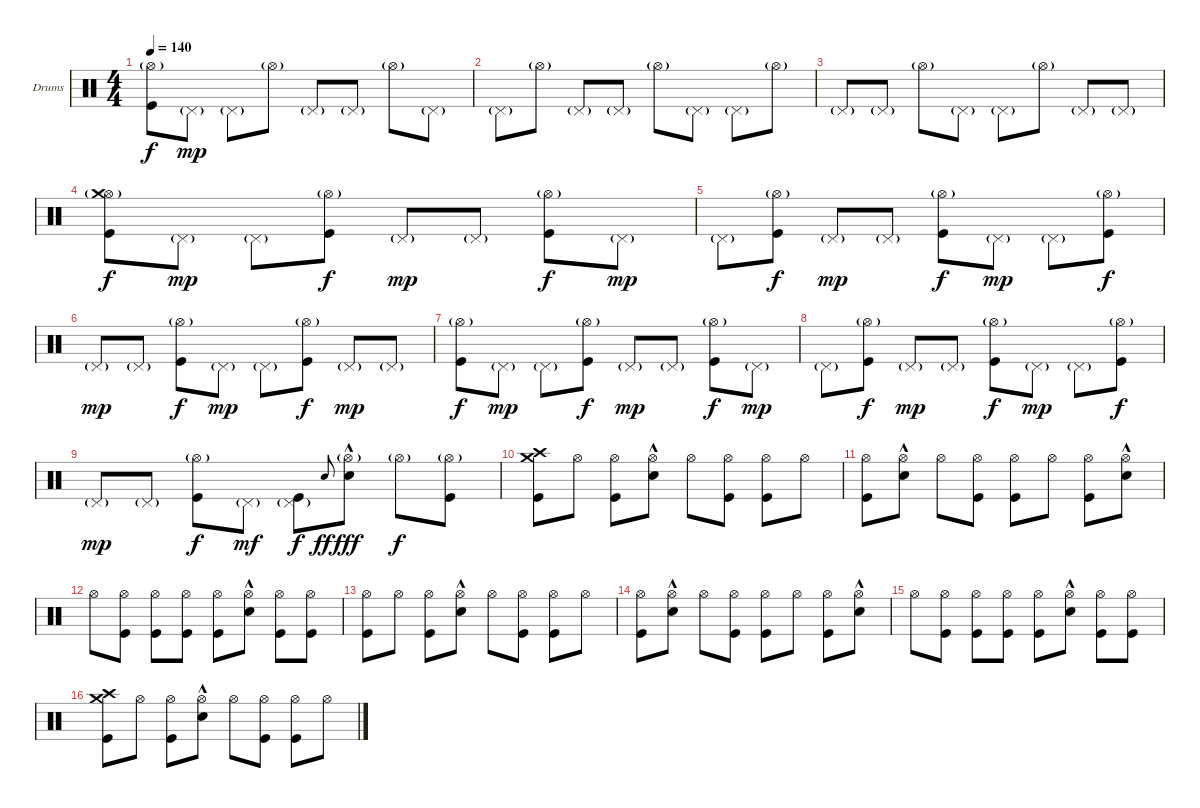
\bracketExtendMode groupsimilarinstruments
\firstSystemTrackNameOrientation horizontal
\otherSystemsTrackNameOrientation horizontal
\track ("Drumkit (Christoph)" "Drums") {instrument percussion}
\staff {score}
\articulation defaults
\ts (4 4)
\tempo 140
\clef neutral
\ks c
("Hi-Hat (open)"{g} "Kick (hit)").8{dy f} "Pedal Hi-Hat (hit)"{g}.8{dy mp} "Pedal Hi-Hat (hit)"{g}.8 "Hi-Hat (open)"{g}.8 "Pedal Hi-Hat (hit)"{g}.8 "Pedal Hi-Hat (hit)"{g}.8 "Hi-Hat (open)"{g}.8 "Pedal Hi-Hat (hit)"{g}.8 |
"Pedal Hi-Hat (hit)"{g}.8 "Hi-Hat (open)"{g}.8 "Pedal Hi-Hat (hit)"{g}.8 "Pedal Hi-Hat (hit)"{g}.8 "Hi-Hat (open)"{g}.8 "Pedal Hi-Hat (hit)"{g}.8 "Pedal Hi-Hat (hit)"{g}.8 "Hi-Hat (open)"{g}.8 |
"Pedal Hi-Hat (hit)"{g}.8 "Pedal Hi-Hat (hit)"{g}.8 "Hi-Hat (open)"{g}.8 "Pedal Hi-Hat (hit)"{g}.8 "Pedal Hi-Hat (hit)"{g}.8 "Hi-Hat (open)"{g}.8 "Pedal Hi-Hat (hit)"{g}.8 "Pedal Hi-Hat (hit)"{g}.8 |
("Hi-Hat (open)"{g} "Kick (hit)" "Crash medium (hit)").8{dy f} "Pedal Hi-Hat (hit)"{g}.8{dy mp} "Pedal Hi-Hat (hit)"{g}.8 ("Hi-Hat (open)"{g} "Kick (hit)").8{dy f} "Pedal Hi-Hat (hit)"{g}.8{dy mp} "Pedal Hi-Hat (hit)"{g}.8 ("Hi-Hat (open)"{g} "Kick (hit)").8{dy f} "Pedal Hi-Hat (hit)"{g}.8{dy mp} |
"Pedal Hi-Hat (hit)"{g}.8 ("Hi-Hat (open)"{g} "Kick (hit)").8{dy f} "Pedal Hi-Hat (hit)"{g}.8{dy mp} "Pedal Hi-Hat (hit)"{g}.8 ("Hi-Hat (open)"{g} "Kick (hit)").8{dy f} "Pedal Hi-Hat (hit)"{g}.8{dy mp} "Pedal Hi-Hat (hit)"{g}.8 ("Hi-Hat (open)"{g} "Kick (hit)").8{dy f} |
"Pedal Hi-Hat (hit)"{g}.8{dy mp} "Pedal Hi-Hat (hit)"{g}.8 ("Hi-Hat (open)"{g} "Kick (hit)").8{dy f} "Pedal Hi-Hat (hit)"{g}.8{dy mp} "Pedal Hi-Hat (hit)"{g}.8 ("Hi-Hat (open)"{g} "Kick (hit)").8{dy f} "Pedal Hi-Hat (hit)"{g}.8{dy mp} "Pedal Hi-Hat (hit)"{g}.8 |
("Hi-Hat (open)"{g} "Kick (hit)").8{dy f} "Pedal Hi-Hat (hit)"{g}.8{dy mp} "Pedal Hi-Hat (hit)"{g}.8 ("Hi-Hat (open)"{g} "Kick (hit)").8{dy f} "Pedal Hi-Hat (hit)"{g}.8{dy mp} "Pedal Hi-Hat (hit)"{g}.8 ("Hi-Hat (open)"{g} "Kick (hit)").8{dy f} "Pedal Hi-Hat (hit)"{g}.8{dy mp} |
"Pedal Hi-Hat (hit)"{g}.8 ("Hi-Hat (open)"{g} "Kick (hit)").8{dy f} "Pedal Hi-Hat (hit)"{g}.8{dy mp} "Pedal Hi-Hat (hit)"{g}.8 ("Hi-Hat (open)"{g} "Kick (hit)").8{dy f} "Pedal Hi-Hat (hit)"{g}.8{dy mp} "Pedal Hi-Hat (hit)"{g}.8 ("Hi-Hat (open)"{g} "Kick (hit)").8{dy f} |
"Pedal Hi-Hat (hit)"{g}.8{dy mp} "Pedal Hi-Hat (hit)"{g}.8 ("Hi-Hat (open)"{g} "Kick (hit)").8{dy f} "Pedal Hi-Hat (hit)"{g}.8{dy mf} ("Pedal Hi-Hat (hit)"{g} "Kick (hit)").8{dy f} "Snare (hit) 2".8{gr onbeat dy ff} ("Hi-Hat (open)"{g} "Snare (hit) 2"{hac}).8{dy fff} "Hi-Hat (open)"{g}.8{dy f} ("Hi-Hat (open)"{g} "Kick (hit)").8 |
("Crash medium (hit)" "Kick (hit)" "Crash high (hit)").8 "Hi-Hat (open)".8 ("Hi-Hat (open)" "Kick (hit)").8 ("Hi-Hat (open)" "Snare (hit) 2"{hac}).8 "Hi-Hat (open)".8 ("Hi-Hat (open)" "Kick (hit)").8 ("Hi-Hat (open)" "Kick (hit)").8 "Hi-Hat (open)".8 |
("Hi-Hat (open)" "Kick (hit)").8 ("Hi-Hat (open)" "Snare (hit) 2"{hac}).8 "Hi-Hat (open)".8 ("Hi-Hat (open)" "Kick (hit)").8 ("Hi-Hat (open)" "Kick (hit)").8 "Hi-Hat (open)".8 ("Hi-Hat (open)" "Kick (hit)").8 ("Hi-Hat (open)" "Snare (hit) 2"{hac}).8 |
"Hi-Hat (open)".8 ("Hi-Hat (open)" "Kick (hit)").8 ("Hi-Hat (open)" "Kick (hit)").8 ("Hi-Hat (open)" "Kick (hit)").8 ("Hi-Hat (open)" "Kick (hit)").8 ("Hi-Hat (open)" "Snare (hit) 2"{hac}).8 ("Hi-Hat (open)" "Kick (hit)").8 ("Hi-Hat (open)" "Kick (hit)").8 |
("Hi-Hat (open)" "Kick (hit)").8 "Hi-Hat (open)".8 ("Hi-Hat (open)" "Kick (hit)").8 ("Hi-Hat (open)" "Snare (hit) 2"{hac}).8 "Hi-Hat (open)".8 ("Hi-Hat (open)" "Kick (hit)").8 ("Hi-Hat (open)" "Kick (hit)").8 "Hi-Hat (open)".8 |
("Hi-Hat (open)" "Kick (hit)").8 ("Hi-Hat (open)" "Snare (hit) 2"{hac}).8 "Hi-Hat (open)".8 ("Hi-Hat (open)" "Kick (hit)").8 ("Hi-Hat (open)" "Kick (hit)").8 "Hi-Hat (open)".8 ("Hi-Hat (open)" "Kick (hit)").8 ("Hi-Hat (open)" "Snare (hit) 2"{hac}).8 |
"Hi-Hat (open)".8 ("Hi-Hat (open)" "Kick (hit)").8 ("Hi-Hat (open)" "Kick (hit)").8 ("Hi-Hat (open)" "Kick (hit)").8 ("Hi-Hat (open)" "Kick (hit)").8 ("Hi-Hat (open)" "Snare (hit) 2"{hac}).8 ("Hi-Hat (open)" "Kick (hit)").8 ("Hi-Hat (open)" "Kick (hit)").8 |
("Crash medium (hit)" "Kick (hit)" "Crash high (hit)").8 "Hi-Hat (open)".8 ("Hi-Hat (open)" "Kick (hit)").8 ("Hi-Hat (open)" "Snare (hit) 2"{hac}).8 "Hi-Hat (open)".8 ("Hi-Hat (open)" "Kick (hit)").8 ("Hi-Hat (open)" "Kick (hit)").8 "Hi-Hat (open)".8
